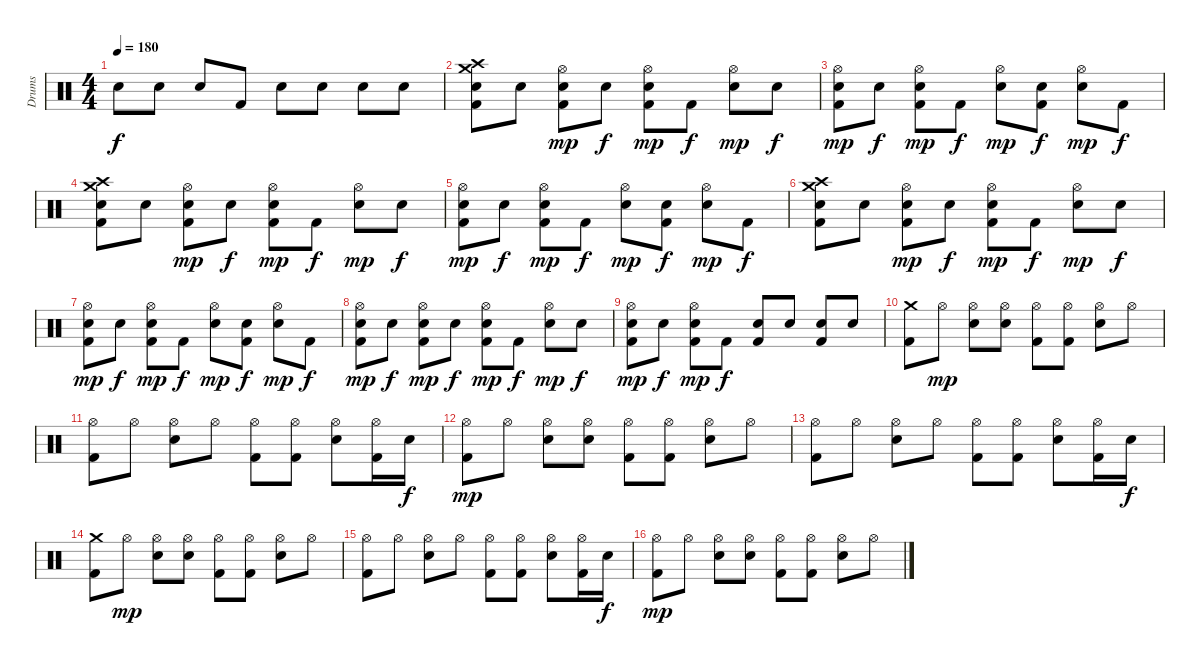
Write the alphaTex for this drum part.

\track ("Drums" "Drums") {instrument percussion}
\staff {score}
\articulation defaults
\ts (4 4)
\tempo 180
\clef neutral
\ks c "Snare (hit) 2".8{dy f} "Snare (hit) 2".8 "Snare (hit) 2".8 "Kick (hit) 2".8 "Snare (hit) 2".8 "Snare (hit) 2".8 "Snare (hit) 2".8 "Snare (hit) 2".8
|
("Crash medium (hit)" "Crash high (hit)" "Snare (hit) 2" "Kick (hit) 2").8 "Snare (hit) 2".8 ("Hi-Hat (open)" "Snare (hit) 2" "Kick (hit) 2").8{dy mp} "Snare (hit) 2".8{dy f} ("Hi-Hat (open)" "Snare (hit) 2" "Kick (hit) 2").8{dy mp} "Kick (hit) 2".8{dy f} ("Hi-Hat (open)" "Snare (hit) 2").8{dy mp} "Snare (hit) 2".8{dy f} |
("Hi-Hat (open)" "Snare (hit) 2" "Kick (hit) 2").8{dy mp} "Snare (hit) 2".8{dy f} ("Hi-Hat (open)" "Snare (hit) 2" "Kick (hit) 2").8{dy mp} "Kick (hit) 2".8{dy f} ("Hi-Hat (open)" "Snare (hit) 2").8{dy mp} ("Snare (hit) 2" "Kick (hit) 2").8{dy f} ("Hi-Hat (open)" "Snare (hit) 2").8{dy mp} "Kick (hit) 2".8{dy f} |
("Crash medium (hit)" "Crash high (hit)" "Snare (hit) 2" "Kick (hit) 2").8 "Snare (hit) 2".8 ("Hi-Hat (open)" "Snare (hit) 2" "Kick (hit) 2").8{dy mp} "Snare (hit) 2".8{dy f} ("Hi-Hat (open)" "Snare (hit) 2" "Kick (hit) 2").8{dy mp} "Kick (hit) 2".8{dy f} ("Hi-Hat (open)" "Snare (hit) 2").8{dy mp} "Snare (hit) 2".8{dy f} |
("Hi-Hat (open)" "Snare (hit) 2" "Kick (hit) 2").8{dy mp} "Snare (hit) 2".8{dy f} ("Hi-Hat (open)" "Snare (hit) 2" "Kick (hit) 2").8{dy mp} "Kick (hit) 2".8{dy f} ("Hi-Hat (open)" "Snare (hit) 2").8{dy mp} ("Snare (hit) 2" "Kick (hit) 2").8{dy f} ("Hi-Hat (open)" "Snare (hit) 2").8{dy mp} "Kick (hit) 2".8{dy f} |
("Crash medium (hit)" "Crash high (hit)" "Snare (hit) 2" "Kick (hit) 2").8 "Snare (hit) 2".8 ("Hi-Hat (open)" "Snare (hit) 2" "Kick (hit) 2").8{dy mp} "Snare (hit) 2".8{dy f} ("Hi-Hat (open)" "Snare (hit) 2" "Kick (hit) 2").8{dy mp} "Kick (hit) 2".8{dy f} ("Hi-Hat (open)" "Snare (hit) 2").8{dy mp} "Snare (hit) 2".8{dy f} |
("Hi-Hat (open)" "Snare (hit) 2" "Kick (hit) 2").8{dy mp} "Snare (hit) 2".8{dy f} ("Hi-Hat (open)" "Snare (hit) 2" "Kick (hit) 2").8{dy mp} "Kick (hit) 2".8{dy f} ("Hi-Hat (open)" "Snare (hit) 2").8{dy mp} ("Snare (hit) 2" "Kick (hit) 2").8{dy f} ("Hi-Hat (open)" "Snare (hit) 2").8{dy mp} "Kick (hit) 2".8{dy f} |
("Hi-Hat (open)" "Snare (hit) 2" "Kick (hit) 2").8{dy mp} "Snare (hit) 2".8{dy f} ("Hi-Hat (open)" "Snare (hit) 2" "Kick (hit) 2").8{dy mp} "Snare (hit) 2".8{dy f} ("Hi-Hat (open)" "Snare (hit) 2" "Kick (hit) 2").8{dy mp} "Kick (hit) 2".8{dy f} ("Hi-Hat (open)" "Snare (hit) 2").8{dy mp} "Snare (hit) 2".8{dy f} |
("Hi-Hat (open)" "Snare (hit) 2" "Kick (hit) 2").8{dy mp} "Snare (hit) 2".8{dy f} ("Hi-Hat (open)" "Snare (hit) 2" "Kick (hit) 2").8{dy mp} "Kick (hit) 2".8{dy f} ("Snare (hit) 2" "Kick (hit) 2").8 "Snare (hit) 2".8 ("Snare (hit) 2" "Kick (hit) 2").8 "Snare (hit) 2".8 |
("Crash medium (hit)" "Kick (hit) 2").8 "Hi-Hat (open)".8{dy mp} ("Hi-Hat (open)" "Snare (hit) 2").8 ("Hi-Hat (open)" "Snare (hit) 2").8 ("Hi-Hat (open)" "Kick (hit) 2").8 ("Hi-Hat (open)" "Kick (hit) 2").8 ("Hi-Hat (open)" "Snare (hit) 2").8 "Hi-Hat (open)".8 |
("Hi-Hat (open)" "Kick (hit) 2").8 "Hi-Hat (open)".8 ("Hi-Hat (open)" "Snare (hit) 2").8 "Hi-Hat (open)".8 ("Hi-Hat (open)" "Kick (hit) 2").8 ("Hi-Hat (open)" "Kick (hit) 2").8 ("Hi-Hat (open)" "Snare (hit) 2").8 ("Hi-Hat (open)" "Kick (hit) 2").16 "Snare (hit) 2".16{dy f} |
("Hi-Hat (open)" "Kick (hit) 2").8{dy mp} "Hi-Hat (open)".8 ("Hi-Hat (open)" "Snare (hit) 2").8 ("Hi-Hat (open)" "Snare (hit) 2").8 ("Hi-Hat (open)" "Kick (hit) 2").8 ("Hi-Hat (open)" "Kick (hit) 2").8 ("Hi-Hat (open)" "Snare (hit) 2").8 "Hi-Hat (open)".8 |
("Hi-Hat (open)" "Kick (hit) 2").8 "Hi-Hat (open)".8 ("Hi-Hat (open)" "Snare (hit) 2").8 "Hi-Hat (open)".8 ("Hi-Hat (open)" "Kick (hit) 2").8 ("Hi-Hat (open)" "Kick (hit) 2").8 ("Hi-Hat (open)" "Snare (hit) 2").8 ("Hi-Hat (open)" "Kick (hit) 2").16 "Snare (hit) 2".16{dy f} |
("Crash medium (hit)" "Kick (hit) 2").8 "Hi-Hat (open)".8{dy mp} ("Hi-Hat (open)" "Snare (hit) 2").8 ("Hi-Hat (open)" "Snare (hit) 2").8 ("Hi-Hat (open)" "Kick (hit) 2").8 ("Hi-Hat (open)" "Kick (hit) 2").8 ("Hi-Hat (open)" "Snare (hit) 2").8 "Hi-Hat (open)".8 |
("Hi-Hat (open)" "Kick (hit) 2").8 "Hi-Hat (open)".8 ("Hi-Hat (open)" "Snare (hit) 2").8 "Hi-Hat (open)".8 ("Hi-Hat (open)" "Kick (hit) 2").8 ("Hi-Hat (open)" "Kick (hit) 2").8 ("Hi-Hat (open)" "Snare (hit) 2").8 ("Hi-Hat (open)" "Kick (hit) 2").16 "Snare (hit) 2".16{dy f} |
("Hi-Hat (open)" "Kick (hit) 2").8{dy mp} "Hi-Hat (open)".8 ("Hi-Hat (open)" "Snare (hit) 2").8 ("Hi-Hat (open)" "Snare (hit) 2").8 ("Hi-Hat (open)" "Kick (hit) 2").8 ("Hi-Hat (open)" "Kick (hit) 2").8 ("Hi-Hat (open)" "Snare (hit) 2").8 "Hi-Hat (open)".8
